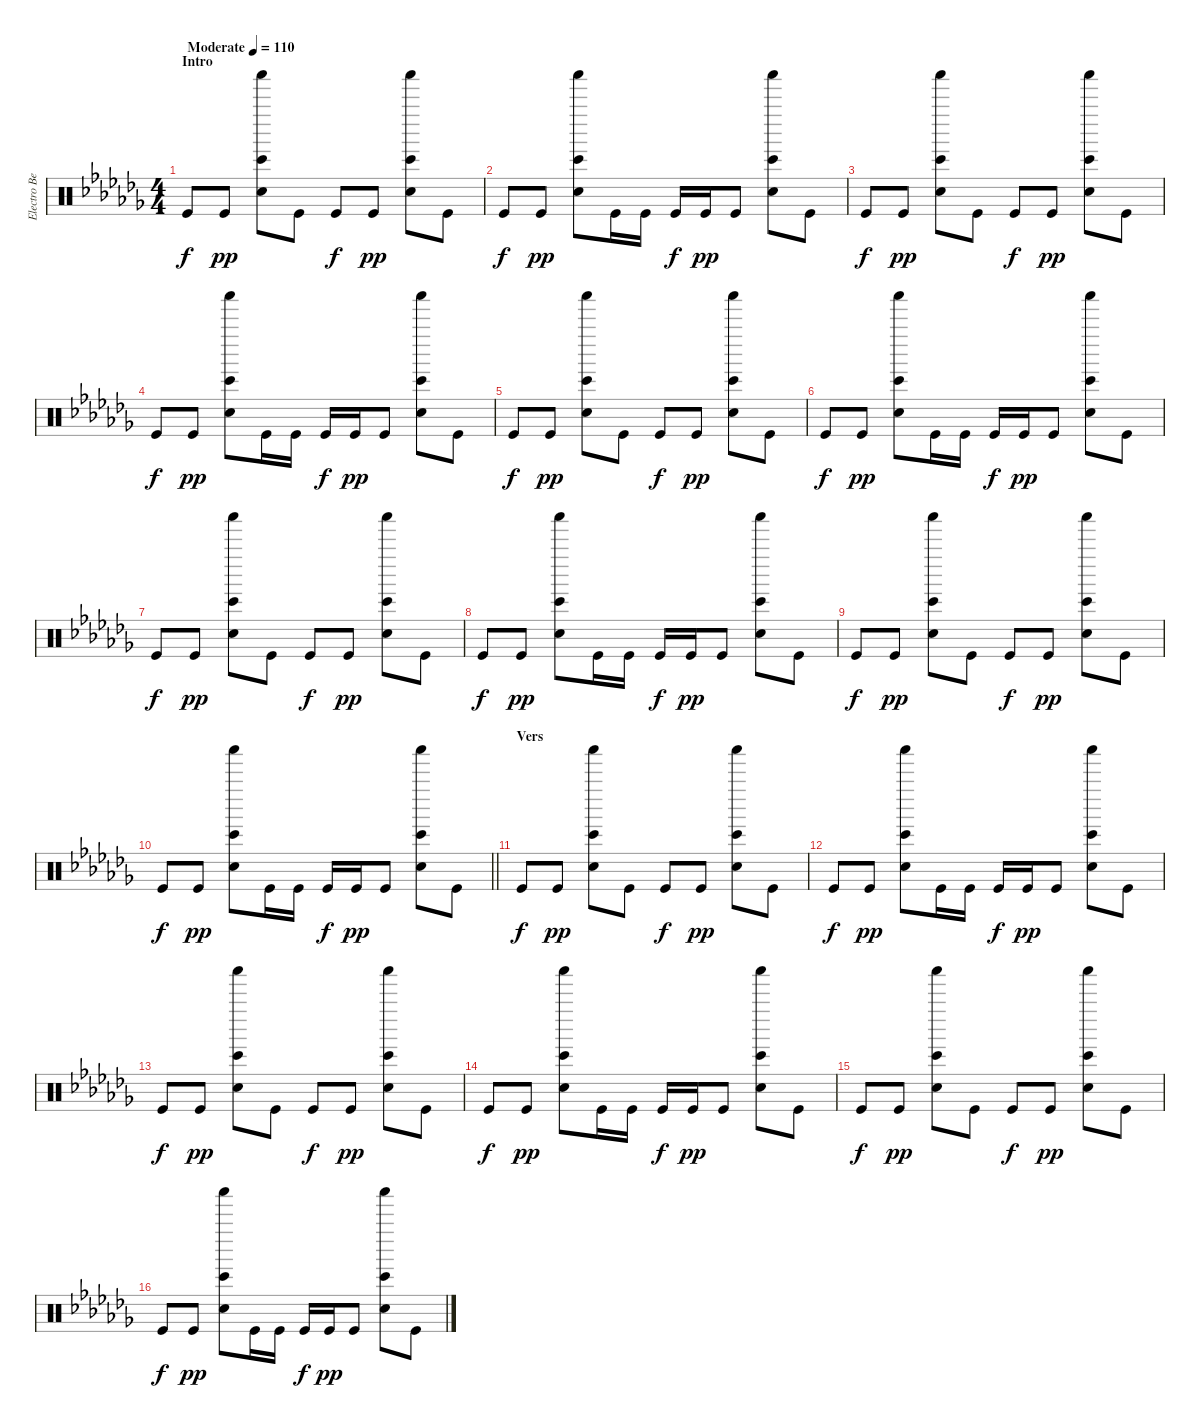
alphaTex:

\track ("Electro Beat - Joe Hahn" "Electro Be") {instrument percussion}
\staff {score}
\articulation defaults
\ts (4 4)
\section ("" "Intro")
\tempo (110 "Moderate")
\clef neutral
\ks abminor "Kick (hit)".8{dy f} "Kick (hit)".8{dy pp}
("Snare (hit) 2" "Bongo High (hit)" "Shaker (hit)").8 "Kick (hit)".8 "Kick (hit)".8{dy f} "Kick (hit)".8{dy pp} ("Snare (hit) 2" "Bongo High (hit)" "Shaker (hit)").8 "Kick (hit)".8 |
"Kick (hit)".8{dy f} "Kick (hit)".8{dy pp} ("Snare (hit) 2" "Bongo High (hit)" "Shaker (hit)").8 "Kick (hit)".16 "Kick (hit)".16 "Kick (hit)".16{dy f} "Kick (hit)".16{dy pp} "Kick (hit)".8 ("Snare (hit) 2" "Bongo High (hit)" "Shaker (hit)").8 "Kick (hit)".8 |
"Kick (hit)".8{dy f} "Kick (hit)".8{dy pp} ("Snare (hit) 2" "Bongo High (hit)" "Shaker (hit)").8 "Kick (hit)".8 "Kick (hit)".8{dy f} "Kick (hit)".8{dy pp} ("Snare (hit) 2" "Bongo High (hit)" "Shaker (hit)").8 "Kick (hit)".8 |
"Kick (hit)".8{dy f} "Kick (hit)".8{dy pp} ("Snare (hit) 2" "Bongo High (hit)" "Shaker (hit)").8 "Kick (hit)".16 "Kick (hit)".16 "Kick (hit)".16{dy f} "Kick (hit)".16{dy pp} "Kick (hit)".8 ("Snare (hit) 2" "Bongo High (hit)" "Shaker (hit)").8 "Kick (hit)".8 |
"Kick (hit)".8{dy f} "Kick (hit)".8{dy pp} ("Snare (hit) 2" "Bongo High (hit)" "Shaker (hit)").8 "Kick (hit)".8 "Kick (hit)".8{dy f} "Kick (hit)".8{dy pp} ("Snare (hit) 2" "Bongo High (hit)" "Shaker (hit)").8 "Kick (hit)".8 |
"Kick (hit)".8{dy f} "Kick (hit)".8{dy pp} ("Snare (hit) 2" "Bongo High (hit)" "Shaker (hit)").8 "Kick (hit)".16 "Kick (hit)".16 "Kick (hit)".16{dy f} "Kick (hit)".16{dy pp} "Kick (hit)".8 ("Snare (hit) 2" "Bongo High (hit)" "Shaker (hit)").8 "Kick (hit)".8 |
"Kick (hit)".8{dy f} "Kick (hit)".8{dy pp} ("Snare (hit) 2" "Bongo High (hit)" "Shaker (hit)").8 "Kick (hit)".8 "Kick (hit)".8{dy f} "Kick (hit)".8{dy pp} ("Snare (hit) 2" "Bongo High (hit)" "Shaker (hit)").8 "Kick (hit)".8 |
"Kick (hit)".8{dy f} "Kick (hit)".8{dy pp} ("Snare (hit) 2" "Bongo High (hit)" "Shaker (hit)").8 "Kick (hit)".16 "Kick (hit)".16 "Kick (hit)".16{dy f} "Kick (hit)".16{dy pp} "Kick (hit)".8 ("Snare (hit) 2" "Bongo High (hit)" "Shaker (hit)").8 "Kick (hit)".8 |
"Kick (hit)".8{dy f} "Kick (hit)".8{dy pp} ("Snare (hit) 2" "Bongo High (hit)" "Shaker (hit)").8 "Kick (hit)".8 "Kick (hit)".8{dy f} "Kick (hit)".8{dy pp} ("Snare (hit) 2" "Bongo High (hit)" "Shaker (hit)").8 "Kick (hit)".8 |
\barLineRight lightlight "Kick (hit)".8{dy f} "Kick (hit)".8{dy pp}
("Snare (hit) 2" "Bongo High (hit)" "Shaker (hit)").8 "Kick (hit)".16 "Kick (hit)".16 "Kick (hit)".16{dy f} "Kick (hit)".16{dy pp} "Kick (hit)".8 ("Snare (hit) 2" "Bongo High (hit)" "Shaker (hit)").8 "Kick (hit)".8 |
\section ("" "Vers")
"Kick (hit)".8{dy f} "Kick (hit)".8{dy pp} ("Snare (hit) 2" "Bongo High (hit)" "Shaker (hit)").8 "Kick (hit)".8 "Kick (hit)".8{dy f} "Kick (hit)".8{dy pp} ("Snare (hit) 2" "Bongo High (hit)" "Shaker (hit)").8 "Kick (hit)".8 |
"Kick (hit)".8{dy f} "Kick (hit)".8{dy pp} ("Snare (hit) 2" "Bongo High (hit)" "Shaker (hit)").8 "Kick (hit)".16 "Kick (hit)".16 "Kick (hit)".16{dy f} "Kick (hit)".16{dy pp} "Kick (hit)".8 ("Snare (hit) 2" "Bongo High (hit)" "Shaker (hit)").8 "Kick (hit)".8 |
"Kick (hit)".8{dy f} "Kick (hit)".8{dy pp} ("Snare (hit) 2" "Bongo High (hit)" "Shaker (hit)").8 "Kick (hit)".8 "Kick (hit)".8{dy f} "Kick (hit)".8{dy pp} ("Snare (hit) 2" "Bongo High (hit)" "Shaker (hit)").8 "Kick (hit)".8 |
"Kick (hit)".8{dy f} "Kick (hit)".8{dy pp} ("Snare (hit) 2" "Bongo High (hit)" "Shaker (hit)").8 "Kick (hit)".16 "Kick (hit)".16 "Kick (hit)".16{dy f} "Kick (hit)".16{dy pp} "Kick (hit)".8 ("Snare (hit) 2" "Bongo High (hit)" "Shaker (hit)").8 "Kick (hit)".8 |
"Kick (hit)".8{dy f} "Kick (hit)".8{dy pp} ("Snare (hit) 2" "Bongo High (hit)" "Shaker (hit)").8 "Kick (hit)".8 "Kick (hit)".8{dy f} "Kick (hit)".8{dy pp} ("Snare (hit) 2" "Bongo High (hit)" "Shaker (hit)").8 "Kick (hit)".8 |
"Kick (hit)".8{dy f} "Kick (hit)".8{dy pp} ("Snare (hit) 2" "Bongo High (hit)" "Shaker (hit)").8 "Kick (hit)".16 "Kick (hit)".16 "Kick (hit)".16{dy f} "Kick (hit)".16{dy pp} "Kick (hit)".8 ("Snare (hit) 2" "Bongo High (hit)" "Shaker (hit)").8 "Kick (hit)".8
